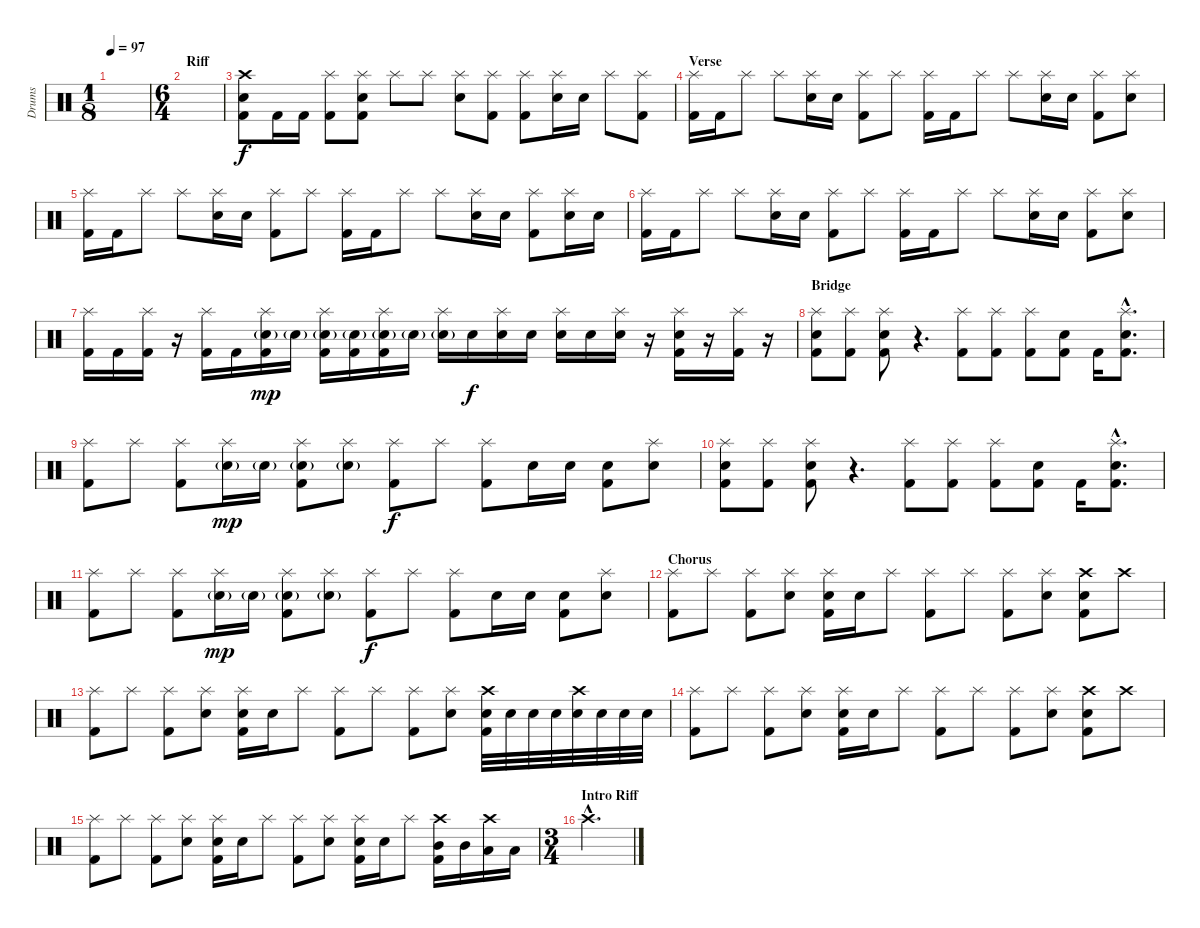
\track ("Drums" "Drums") {instrument percussion}
\staff {score}
\articulation defaults
\ts (1 8)
\tempo 97
\clef neutral
\ks c
|
\ts (6 4)
\section ("" "Riff")
|
("Crash high (hit)" "Snare (hit) 2" "Kick (hit) 2").8 "Kick (hit) 2".16 "Kick (hit) 2".16 ("Splash (hit)" "Kick (hit) 2").8 ("Splash (hit)" "Snare (hit) 2" "Kick (hit) 2").8 "Splash (hit)".8 "Splash (hit)".8 ("Splash (hit)" "Snare (hit) 2").8 ("Splash (hit)" "Kick (hit) 2").8 ("Splash (hit)" "Kick (hit) 2").8 ("Splash (hit)" "Snare (hit) 2").16 "Snare (hit) 2".16 "Splash (hit)".8 ("Splash (hit)" "Kick (hit) 2").8 |
\section ("" "Verse")
("Splash (hit)" "Kick (hit) 2").16 "Kick (hit) 2".16 "Splash (hit)".8 "Splash (hit)".8 ("Splash (hit)" "Snare (hit) 2").16 "Snare (hit) 2".16 ("Splash (hit)" "Kick (hit) 2").8 "Splash (hit)".8 ("Splash (hit)" "Kick (hit) 2").16 "Kick (hit) 2".16 "Splash (hit)".8 "Splash (hit)".8 ("Splash (hit)" "Snare (hit) 2").16 "Snare (hit) 2".16 ("Splash (hit)" "Kick (hit) 2").8 ("Splash (hit)" "Snare (hit) 2").8 |
("Splash (hit)" "Kick (hit) 2").16 "Kick (hit) 2".16 "Splash (hit)".8 "Splash (hit)".8 ("Splash (hit)" "Snare (hit) 2").16 "Snare (hit) 2".16 ("Splash (hit)" "Kick (hit) 2").8 "Splash (hit)".8 ("Splash (hit)" "Kick (hit) 2").16 "Kick (hit) 2".16 "Splash (hit)".8 "Splash (hit)".8 ("Splash (hit)" "Snare (hit) 2").16 "Snare (hit) 2".16 ("Splash (hit)" "Kick (hit) 2").8 ("Splash (hit)" "Snare (hit) 2").16 "Snare (hit) 2".16 |
("Splash (hit)" "Kick (hit) 2").16 "Kick (hit) 2".16 "Splash (hit)".8 "Splash (hit)".8 ("Splash (hit)" "Snare (hit) 2").16 "Snare (hit) 2".16 ("Splash (hit)" "Kick (hit) 2").8 "Splash (hit)".8 ("Splash (hit)" "Kick (hit) 2").16 "Kick (hit) 2".16 "Splash (hit)".8 "Splash (hit)".8 ("Splash (hit)" "Snare (hit) 2").16 "Snare (hit) 2".16 ("Splash (hit)" "Kick (hit) 2").8 ("Splash (hit)" "Snare (hit) 2").8 |
("Splash (hit)" "Kick (hit) 2").16 "Kick (hit) 2".16 ("Splash (hit)" "Kick (hit) 2").16 r.16 ("Splash (hit)" "Kick (hit) 2").16 "Kick (hit) 2".16 ("Splash (hit)" "Snare (hit) 2"{g} "Kick (hit) 2").16{dy mp} "Snare (hit) 2"{g}.16 ("Splash (hit)" "Snare (hit) 2"{g} "Kick (hit) 2").16 ("Snare (hit) 2"{g} "Kick (hit) 2").16 ("Splash (hit)" "Snare (hit) 2"{g} "Kick (hit) 2").16 "Snare (hit) 2"{g}.16 ("Splash (hit)" "Snare (hit) 2"{g}).16 "Snare (hit) 2".16{dy f} ("Splash (hit)" "Snare (hit) 2").16 "Snare (hit) 2".16 ("Splash (hit)" "Snare (hit) 2").16 "Snare (hit) 2".16 ("Splash (hit)" "Snare (hit) 2").16 r.16 ("Splash (hit)" "Snare (hit) 2" "Kick (hit) 2").16 r.16 ("Splash (hit)" "Kick (hit) 2").16 r.16 |
\section ("" "Bridge")
("Splash (hit)" "Snare (hit) 2" "Kick (hit) 2").8 ("Splash (hit)" "Kick (hit) 2").8 ("Splash (hit)" "Snare (hit) 2" "Kick (hit) 2").8 r.4{d} ("Splash (hit)" "Kick (hit) 2").8 ("Splash (hit)" "Kick (hit) 2").8 ("Splash (hit)" "Kick (hit) 2").8 ("Snare (hit) 2" "Kick (hit) 2").8 "Kick (hit) 2".16 ("Splash (hit)"{hac} "Snare (hit) 2"{hac} "Kick (hit) 2"{hac}).8{d} |
("Splash (hit)" "Kick (hit) 2").8 "Splash (hit)".8 ("Splash (hit)" "Kick (hit) 2").8 ("Splash (hit)" "Snare (hit) 2"{g}).16{dy mp} "Snare (hit) 2"{g}.16 ("Splash (hit)" "Snare (hit) 2"{g} "Kick (hit) 2").8 ("Splash (hit)" "Snare (hit) 2"{g}).8 ("Splash (hit)" "Kick (hit) 2").8{dy f} "Splash (hit)".8 ("Splash (hit)" "Kick (hit) 2").8 "Snare (hit) 2".16 "Snare (hit) 2".16 ("Snare (hit) 2" "Kick (hit) 2").8 ("Splash (hit)" "Snare (hit) 2").8 |
("Splash (hit)" "Snare (hit) 2" "Kick (hit) 2").8 ("Splash (hit)" "Kick (hit) 2").8 ("Splash (hit)" "Snare (hit) 2" "Kick (hit) 2").8 r.4{d} ("Splash (hit)" "Kick (hit) 2").8 ("Splash (hit)" "Kick (hit) 2").8 ("Splash (hit)" "Kick (hit) 2").8 ("Snare (hit) 2" "Kick (hit) 2").8 "Kick (hit) 2".16 ("Splash (hit)"{hac} "Snare (hit) 2"{hac} "Kick (hit) 2"{hac}).8{d} |
("Splash (hit)" "Kick (hit) 2").8 "Splash (hit)".8 ("Splash (hit)" "Kick (hit) 2").8 ("Splash (hit)" "Snare (hit) 2"{g}).16{dy mp} "Snare (hit) 2"{g}.16 ("Splash (hit)" "Snare (hit) 2"{g} "Kick (hit) 2").8 ("Splash (hit)" "Snare (hit) 2"{g}).8 ("Splash (hit)" "Kick (hit) 2").8{dy f} "Splash (hit)".8 ("Splash (hit)" "Kick (hit) 2").8 "Snare (hit) 2".16 "Snare (hit) 2".16 ("Snare (hit) 2" "Kick (hit) 2").8 ("Splash (hit)" "Snare (hit) 2").8 |
\section ("" "Chorus")
("Splash (hit)" "Kick (hit) 2").8 "Splash (hit)".8 ("Splash (hit)" "Kick (hit) 2").8 ("Splash (hit)" "Snare (hit) 2").8 ("Splash (hit)" "Snare (hit) 2" "Kick (hit) 2").16 "Snare (hit) 2".16 "Splash (hit)".8 ("Splash (hit)" "Kick (hit) 2").8 "Splash (hit)".8 ("Splash (hit)" "Kick (hit) 2").8 ("Splash (hit)" "Snare (hit) 2").8 ("Crash high (hit)" "Snare (hit) 2" "Kick (hit) 2").8 "Crash high (hit)".8 |
("Splash (hit)" "Kick (hit) 2").8 "Splash (hit)".8 ("Splash (hit)" "Kick (hit) 2").8 ("Splash (hit)" "Snare (hit) 2").8 ("Splash (hit)" "Snare (hit) 2" "Kick (hit) 2").16 "Snare (hit) 2".16 "Splash (hit)".8 ("Splash (hit)" "Kick (hit) 2").8 "Splash (hit)".8 ("Splash (hit)" "Kick (hit) 2").8 ("Splash (hit)" "Snare (hit) 2").8 ("Crash high (hit)" "Snare (hit) 2" "Kick (hit) 2").32 "Snare (hit) 2".32 "Snare (hit) 2".32 "Snare (hit) 2".32 ("Crash high (hit)" "Snare (hit) 2").32 "Snare (hit) 2".32 "Snare (hit) 2".32 "Snare (hit) 2".32 |
("Splash (hit)" "Kick (hit) 2").8 "Splash (hit)".8 ("Splash (hit)" "Kick (hit) 2").8 ("Splash (hit)" "Snare (hit) 2").8 ("Splash (hit)" "Snare (hit) 2" "Kick (hit) 2").16 "Snare (hit) 2".16 "Splash (hit)".8 ("Splash (hit)" "Kick (hit) 2").8 "Splash (hit)".8 ("Splash (hit)" "Kick (hit) 2").8 ("Splash (hit)" "Snare (hit) 2").8 ("Crash high (hit)" "Snare (hit) 2" "Kick (hit) 2").8 "Crash high (hit)".8 |
("Splash (hit)" "Kick (hit) 2").8 "Splash (hit)".8 ("Splash (hit)" "Kick (hit) 2").8 ("Splash (hit)" "Snare (hit) 2").8 ("Splash (hit)" "Snare (hit) 2" "Kick (hit) 2").16 "Snare (hit) 2".16 "Splash (hit)".8 ("Splash (hit)" "Kick (hit) 2").8 ("Splash (hit)" "Snare (hit) 2").8 ("Splash (hit)" "Snare (hit) 2" "Kick (hit) 2").16 "Snare (hit) 2".16 "Splash (hit)".8 ("Crash high (hit)" "Mid Tom (hit)" "Kick (hit) 2").16 "Mid Tom (hit)".16 ("Crash high (hit)" "Low Tom (hit)").16 "Low Tom (hit)".16 |
\ts (3 4)
\section ("" "Intro Riff")
"Crash high (hit)"{hac}.2{d}
